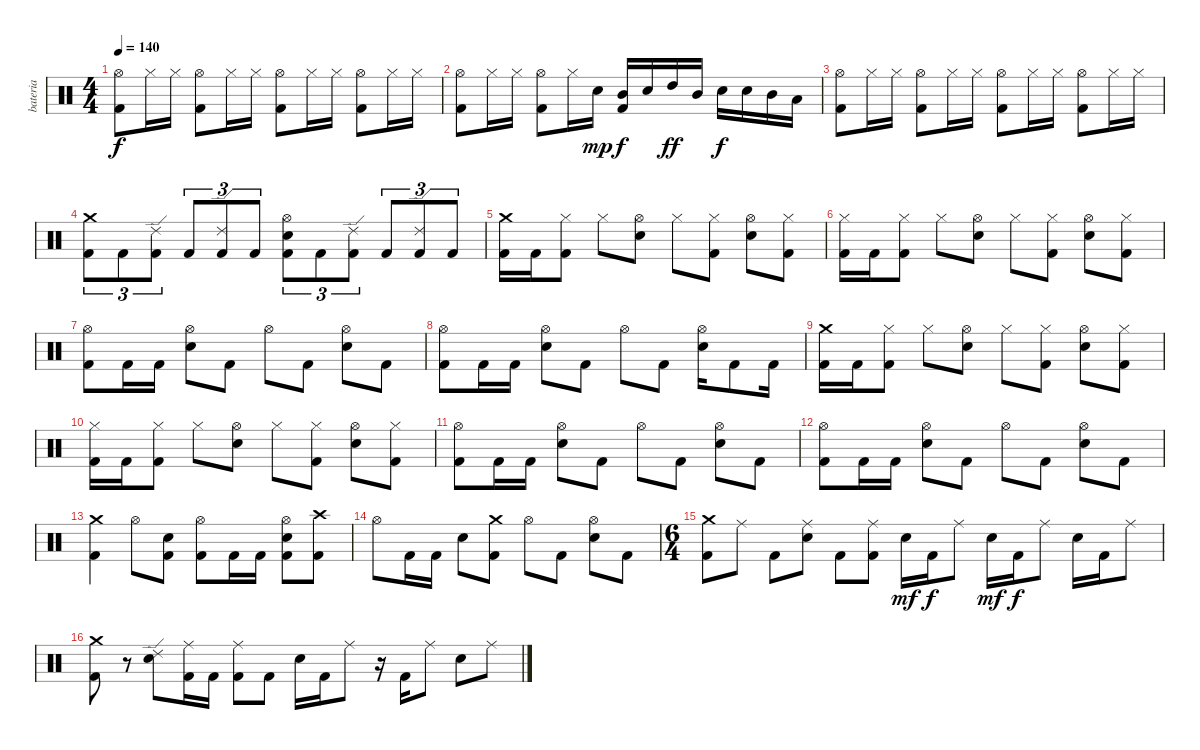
\track ("bateria" "bateria") {instrument percussion}
\staff {score}
\articulation defaults
\ts (4 4)
\tempo 140
\clef neutral
\ks c
("Hi-Hat (open)" "Kick (hit) 2").8{dy f} "Hi-Hat (closed)".16 "Hi-Hat (closed)".16 ("Hi-Hat (open)" "Kick (hit) 2").8 "Hi-Hat (closed)".16 "Hi-Hat (closed)".16 ("Hi-Hat (open)" "Kick (hit) 2").8 "Hi-Hat (closed)".16 "Hi-Hat (closed)".16 ("Hi-Hat (open)" "Kick (hit) 2").8 "Hi-Hat (closed)".16 "Hi-Hat (closed)".16 |
("Hi-Hat (open)" "Kick (hit) 2").8 "Hi-Hat (closed)".16 "Hi-Hat (closed)".16 ("Hi-Hat (open)" "Kick (hit) 2").8 "Hi-Hat (closed)".16 "Electric Snare (hit)".16{dy mp} ("Mid Tom (hit)" "Kick (hit) 2").16{dy f} "Electric Snare (hit)".16 "High Tom (hit)".16{dy ff} "Mid Tom (hit)".16 "Electric Snare (hit)".16{dy f} "Electric Snare (hit)".16 "Mid Tom (hit)".16 "Low Tom (hit)".16 |
("Hi-Hat (open)" "Kick (hit) 2").8 "Hi-Hat (closed)".16 "Hi-Hat (closed)".16 ("Hi-Hat (open)" "Kick (hit) 2").8 "Hi-Hat (closed)".16 "Hi-Hat (closed)".16 ("Hi-Hat (open)" "Kick (hit) 2").8 "Hi-Hat (closed)".16 "Hi-Hat (closed)".16 ("Hi-Hat (open)" "Kick (hit) 2").8 "Hi-Hat (closed)".16 "Hi-Hat (closed)".16 |
("Crash medium (hit)" "Kick (hit) 2").8{tu (3 2)} "Kick (hit) 2".8{tu (3 2)} ("Ride (edge) 2" "Kick (hit) 2").8{tu (3 2)} "Kick (hit) 2".8{tu (3 2)} ("Ride (edge) 2" "Kick (hit) 2").8{tu (3 2)} "Kick (hit) 2".8{tu (3 2)} ("Hi-Hat (open)" "Electric Snare (hit)" "Kick (hit) 2").8{tu (3 2)} "Kick (hit) 2".8{tu (3 2)} ("Ride (edge) 2" "Kick (hit) 2").8{tu (3 2)} "Kick (hit) 2".8{tu (3 2)} ("Ride (edge) 2" "Kick (hit) 2").8{tu (3 2)} "Kick (hit) 2".8{tu (3 2)} |
("Crash medium (hit)" "Kick (hit) 2").16 "Kick (hit) 2".16 ("Hi-Hat (closed)" "Kick (hit) 2").8 "Hi-Hat (closed)".8 ("Hi-Hat (open)" "Electric Snare (hit)").8 "Hi-Hat (closed)".8 ("Hi-Hat (closed)" "Kick (hit) 2").8 ("Hi-Hat (open)" "Electric Snare (hit)").8 ("Hi-Hat (closed)" "Kick (hit) 2").8 |
("Hi-Hat (closed)" "Kick (hit) 2").16 "Kick (hit) 2".16 ("Hi-Hat (closed)" "Kick (hit) 2").8 "Hi-Hat (closed)".8 ("Hi-Hat (open)" "Electric Snare (hit)").8 "Hi-Hat (closed)".8 ("Hi-Hat (closed)" "Kick (hit) 2").8 ("Hi-Hat (open)" "Electric Snare (hit)").8 ("Hi-Hat (closed)" "Kick (hit) 2").8 |
("Hi-Hat (open)" "Kick (hit) 2").8 "Kick (hit) 2".16 "Kick (hit) 2".16 ("Hi-Hat (open)" "Electric Snare (hit)").8 "Kick (hit) 2".8 "Hi-Hat (open)".8 "Kick (hit) 2".8 ("Hi-Hat (open)" "Electric Snare (hit)").8 "Kick (hit) 2".8 |
("Hi-Hat (open)" "Kick (hit) 2").8 "Kick (hit) 2".16 "Kick (hit) 2".16 ("Hi-Hat (open)" "Electric Snare (hit)").8 "Kick (hit) 2".8 "Hi-Hat (open)".8 "Kick (hit) 2".8 ("Hi-Hat (open)" "Electric Snare (hit)").16 "Kick (hit) 2".8 "Kick (hit) 2".16 |
("Crash medium (hit)" "Kick (hit) 2").16 "Kick (hit) 2".16 ("Hi-Hat (closed)" "Kick (hit) 2").8 "Hi-Hat (closed)".8 ("Hi-Hat (open)" "Electric Snare (hit)").8 "Hi-Hat (closed)".8 ("Hi-Hat (closed)" "Kick (hit) 2").8 ("Hi-Hat (open)" "Electric Snare (hit)").8 ("Hi-Hat (closed)" "Kick (hit) 2").8 |
("Hi-Hat (closed)" "Kick (hit) 2").16 "Kick (hit) 2".16 ("Hi-Hat (closed)" "Kick (hit) 2").8 "Hi-Hat (closed)".8 ("Hi-Hat (open)" "Electric Snare (hit)").8 "Hi-Hat (closed)".8 ("Hi-Hat (closed)" "Kick (hit) 2").8 ("Hi-Hat (open)" "Electric Snare (hit)").8 ("Hi-Hat (closed)" "Kick (hit) 2").8 |
("Hi-Hat (open)" "Kick (hit) 2").8 "Kick (hit) 2".16 "Kick (hit) 2".16 ("Hi-Hat (open)" "Electric Snare (hit)").8 "Kick (hit) 2".8 "Hi-Hat (open)".8 "Kick (hit) 2".8 ("Hi-Hat (open)" "Electric Snare (hit)").8 "Kick (hit) 2".8 |
("Hi-Hat (open)" "Kick (hit) 2").8 "Kick (hit) 2".16 "Kick (hit) 2".16 ("Hi-Hat (open)" "Electric Snare (hit)").8 "Kick (hit) 2".8 "Hi-Hat (open)".8 "Kick (hit) 2".8 ("Hi-Hat (open)" "Electric Snare (hit)").8 "Kick (hit) 2".8 |
("Crash medium (hit)" "Kick (hit) 2").4 "Hi-Hat (open)".8 ("Electric Snare (hit)" "Kick (hit) 2").8 ("Hi-Hat (open)" "Kick (hit) 2").8 "Kick (hit) 2".16 "Kick (hit) 2".16 ("Hi-Hat (open)" "Electric Snare (hit)" "Kick (hit) 2").8 ("Crash high (hit)" "Kick (hit) 2").8 |
"Hi-Hat (open)".8 "Kick (hit) 2".16 "Kick (hit) 2".16 "Electric Snare (hit)".8 ("Crash medium (hit)" "Kick (hit) 2").8 "Hi-Hat (open)".8 "Kick (hit) 2".8 ("Hi-Hat (open)" "Electric Snare (hit)").8 "Kick (hit) 2".8 |
\ts (6 4)
("Crash medium (hit)" "Kick (hit) 2").8 "Ride (middle)".8 "Kick (hit) 2".8 ("Ride (middle)" "Electric Snare (hit)").8 "Kick (hit) 2".8 ("Ride (middle)" "Kick (hit) 2").8 "Electric Snare (hit)".16{dy mf} "Kick (hit) 2".16{dy f} "Ride (middle)".8 "Electric Snare (hit)".16{dy mf} "Kick (hit) 2".16{dy f} "Ride (middle)".8 "Electric Snare (hit)".16 "Kick (hit) 2".16 "Ride (middle)".8 |
("Crash medium (hit)" "Kick (hit) 2").8 r.8 ("Ride (edge) 2" "Electric Snare (hit)").8 ("Ride (middle)" "Kick (hit) 2").16 "Kick (hit) 2".16 ("Ride (middle)" "Kick (hit) 2").8 "Kick (hit) 2".8 "Electric Snare (hit)".16 "Kick (hit) 2".16 "Ride (middle)".8 r.16 "Kick (hit) 2".16 "Ride (middle)".8 "Electric Snare (hit)".8 "Ride (middle)".8
